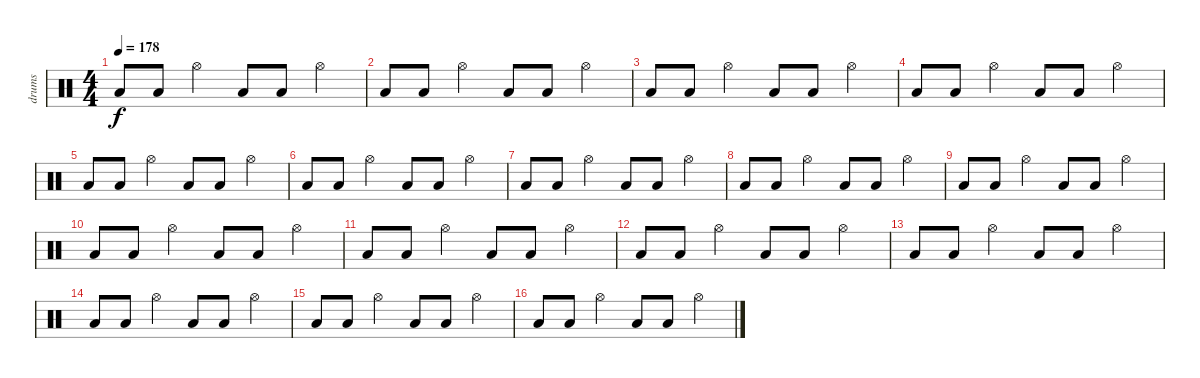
\track ("drums" "drums") {instrument percussion}
\staff {score}
\articulation defaults
\ts (4 4)
\tempo 178
\clef neutral
\ks c "Low Floor Tom (hit)".8{dy f} "Low Floor Tom (hit)".8 "Hi-Hat (open)".4 "Low Floor Tom (hit)".8 "Low Floor Tom (hit)".8 "Hi-Hat (open)".4
|
"Low Floor Tom (hit)".8 "Low Floor Tom (hit)".8 "Hi-Hat (open)".4 "Low Floor Tom (hit)".8 "Low Floor Tom (hit)".8 "Hi-Hat (open)".4 |
"Low Floor Tom (hit)".8 "Low Floor Tom (hit)".8 "Hi-Hat (open)".4 "Low Floor Tom (hit)".8 "Low Floor Tom (hit)".8 "Hi-Hat (open)".4 |
"Low Floor Tom (hit)".8 "Low Floor Tom (hit)".8 "Hi-Hat (open)".4 "Low Floor Tom (hit)".8 "Low Floor Tom (hit)".8 "Hi-Hat (open)".4 |
"Low Floor Tom (hit)".8 "Low Floor Tom (hit)".8 "Hi-Hat (open)".4 "Low Floor Tom (hit)".8 "Low Floor Tom (hit)".8 "Hi-Hat (open)".4 |
"Low Floor Tom (hit)".8 "Low Floor Tom (hit)".8 "Hi-Hat (open)".4 "Low Floor Tom (hit)".8 "Low Floor Tom (hit)".8 "Hi-Hat (open)".4 |
"Low Floor Tom (hit)".8 "Low Floor Tom (hit)".8 "Hi-Hat (open)".4 "Low Floor Tom (hit)".8 "Low Floor Tom (hit)".8 "Hi-Hat (open)".4 |
"Low Floor Tom (hit)".8 "Low Floor Tom (hit)".8 "Hi-Hat (open)".4 "Low Floor Tom (hit)".8 "Low Floor Tom (hit)".8 "Hi-Hat (open)".4 |
"Low Floor Tom (hit)".8 "Low Floor Tom (hit)".8 "Hi-Hat (open)".4 "Low Floor Tom (hit)".8 "Low Floor Tom (hit)".8 "Hi-Hat (open)".4 |
"Low Floor Tom (hit)".8 "Low Floor Tom (hit)".8 "Hi-Hat (open)".4 "Low Floor Tom (hit)".8 "Low Floor Tom (hit)".8 "Hi-Hat (open)".4 |
"Low Floor Tom (hit)".8 "Low Floor Tom (hit)".8 "Hi-Hat (open)".4 "Low Floor Tom (hit)".8 "Low Floor Tom (hit)".8 "Hi-Hat (open)".4 |
"Low Floor Tom (hit)".8 "Low Floor Tom (hit)".8 "Hi-Hat (open)".4 "Low Floor Tom (hit)".8 "Low Floor Tom (hit)".8 "Hi-Hat (open)".4 |
"Low Floor Tom (hit)".8 "Low Floor Tom (hit)".8 "Hi-Hat (open)".4 "Low Floor Tom (hit)".8 "Low Floor Tom (hit)".8 "Hi-Hat (open)".4 |
"Low Floor Tom (hit)".8 "Low Floor Tom (hit)".8 "Hi-Hat (open)".4 "Low Floor Tom (hit)".8 "Low Floor Tom (hit)".8 "Hi-Hat (open)".4 |
"Low Floor Tom (hit)".8 "Low Floor Tom (hit)".8 "Hi-Hat (open)".4 "Low Floor Tom (hit)".8 "Low Floor Tom (hit)".8 "Hi-Hat (open)".4 |
"Low Floor Tom (hit)".8 "Low Floor Tom (hit)".8 "Hi-Hat (open)".4 "Low Floor Tom (hit)".8 "Low Floor Tom (hit)".8 "Hi-Hat (open)".4
